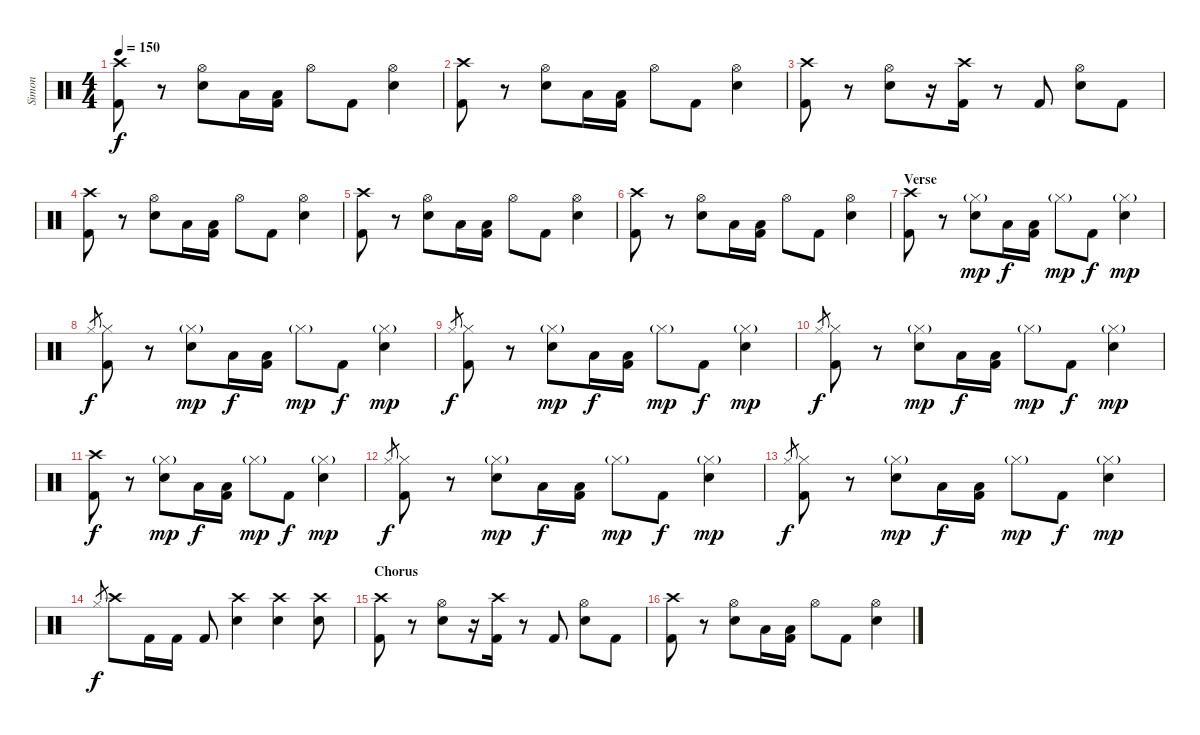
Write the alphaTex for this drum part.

\track ("Simon" "Simon") {instrument percussion}
\staff {score}
\articulation defaults
\ts (4 4)
\tempo 150
\clef neutral
\ks c
("Crash high (hit)" "Kick (hit) 2").8{dy f} r.8 ("Hi-Hat (open)" "Electric Snare (hit)").8 "Low Tom (hit)".16 ("Kick (hit) 2" "Low Tom (hit)").16 "Hi-Hat (open)".8 "Kick (hit) 2".8 ("Hi-Hat (open)" "Electric Snare (hit)").4 |
("Crash high (hit)" "Kick (hit) 2").8 r.8 ("Hi-Hat (open)" "Electric Snare (hit)").8 "Low Tom (hit)".16 ("Kick (hit) 2" "Low Tom (hit)").16 "Hi-Hat (open)".8 "Kick (hit) 2".8 ("Hi-Hat (open)" "Electric Snare (hit)").4 |
("Crash high (hit)" "Kick (hit) 2").8 r.8 ("Hi-Hat (open)" "Electric Snare (hit)").8 r.16 ("Crash high (hit)" "Kick (hit) 2").16 r.8 "Kick (hit) 2".8 ("Hi-Hat (open)" "Electric Snare (hit)").8 "Kick (hit) 2".8 |
("Crash high (hit)" "Kick (hit) 2").8 r.8 ("Hi-Hat (open)" "Electric Snare (hit)").8 "Low Tom (hit)".16 ("Kick (hit) 2" "Low Tom (hit)").16 "Hi-Hat (open)".8 "Kick (hit) 2".8 ("Hi-Hat (open)" "Electric Snare (hit)").4 |
("Crash high (hit)" "Kick (hit) 2").8 r.8 ("Hi-Hat (open)" "Electric Snare (hit)").8 "Low Tom (hit)".16 ("Kick (hit) 2" "Low Tom (hit)").16 "Hi-Hat (open)".8 "Kick (hit) 2".8 ("Hi-Hat (open)" "Electric Snare (hit)").4 |
("Crash high (hit)" "Kick (hit) 2").8 r.8 ("Hi-Hat (open)" "Electric Snare (hit)").8 "Low Tom (hit)".16 ("Kick (hit) 2" "Low Tom (hit)").16 "Hi-Hat (open)".8 "Kick (hit) 2".8 ("Hi-Hat (open)" "Electric Snare (hit)").4 |
\section ("" "Verse")
("Crash high (hit)" "Kick (hit) 2").8 r.8 ("Hi-Hat (closed)"{g} "Electric Snare (hit)").8{dy mp} "Low Tom (hit)".16{dy f} ("Kick (hit) 2" "Low Tom (hit)").16 "Hi-Hat (closed)"{g}.8{dy mp} "Kick (hit) 2".8{dy f} ("Hi-Hat (closed)"{g} "Electric Snare (hit)").4{dy mp} |
"Hi-Hat (closed)".8{gr dy f} ("Hi-Hat (closed)" "Kick (hit) 2").8 r.8 ("Hi-Hat (closed)"{g} "Electric Snare (hit)").8{dy mp} "Low Tom (hit)".16{dy f} ("Kick (hit) 2" "Low Tom (hit)").16 "Hi-Hat (closed)"{g}.8{dy mp} "Kick (hit) 2".8{dy f} ("Hi-Hat (closed)"{g} "Electric Snare (hit)").4{dy mp} |
"Hi-Hat (closed)".8{gr dy f} ("Hi-Hat (closed)" "Kick (hit) 2").8 r.8 ("Hi-Hat (closed)"{g} "Electric Snare (hit)").8{dy mp} "Low Tom (hit)".16{dy f} ("Kick (hit) 2" "Low Tom (hit)").16 "Hi-Hat (closed)"{g}.8{dy mp} "Kick (hit) 2".8{dy f} ("Hi-Hat (closed)"{g} "Electric Snare (hit)").4{dy mp} |
"Hi-Hat (closed)".8{gr dy f} ("Hi-Hat (closed)" "Kick (hit) 2").8 r.8 ("Hi-Hat (closed)"{g} "Electric Snare (hit)").8{dy mp} "Low Tom (hit)".16{dy f} ("Kick (hit) 2" "Low Tom (hit)").16 "Hi-Hat (closed)"{g}.8{dy mp} "Kick (hit) 2".8{dy f} ("Hi-Hat (closed)"{g} "Electric Snare (hit)").4{dy mp} |
("Crash high (hit)" "Kick (hit) 2").8{dy f} r.8 ("Hi-Hat (closed)"{g} "Electric Snare (hit)").8{dy mp} "Low Tom (hit)".16{dy f} ("Kick (hit) 2" "Low Tom (hit)").16 "Hi-Hat (closed)"{g}.8{dy mp} "Kick (hit) 2".8{dy f} ("Hi-Hat (closed)"{g} "Electric Snare (hit)").4{dy mp} |
"Hi-Hat (closed)".8{gr dy f} ("Hi-Hat (closed)" "Kick (hit) 2").8 r.8 ("Hi-Hat (closed)"{g} "Electric Snare (hit)").8{dy mp} "Low Tom (hit)".16{dy f} ("Kick (hit) 2" "Low Tom (hit)").16 "Hi-Hat (closed)"{g}.8{dy mp} "Kick (hit) 2".8{dy f} ("Hi-Hat (closed)"{g} "Electric Snare (hit)").4{dy mp} |
"Hi-Hat (closed)".8{gr dy f} ("Hi-Hat (closed)" "Kick (hit) 2").8 r.8 ("Hi-Hat (closed)"{g} "Electric Snare (hit)").8{dy mp} "Low Tom (hit)".16{dy f} ("Kick (hit) 2" "Low Tom (hit)").16 "Hi-Hat (closed)"{g}.8{dy mp} "Kick (hit) 2".8{dy f} ("Hi-Hat (closed)"{g} "Electric Snare (hit)").4{dy mp} |
"Hi-Hat (closed)".8{gr dy f} "Crash high (hit)".8 "Kick (hit) 2".16 "Kick (hit) 2".16 "Kick (hit) 2".8 ("Crash high (hit)" "Electric Snare (hit)").4 ("Crash high (hit)" "Electric Snare (hit)").4 ("Crash high (hit)" "Electric Snare (hit)").8 |
\section ("" "Chorus")
("Crash high (hit)" "Kick (hit) 2").8 r.8 ("Hi-Hat (open)" "Electric Snare (hit)").8 r.16 ("Crash high (hit)" "Kick (hit) 2").16 r.8 "Kick (hit) 2".8 ("Hi-Hat (open)" "Electric Snare (hit)").8 "Kick (hit) 2".8 |
("Crash high (hit)" "Kick (hit) 2").8 r.8 ("Hi-Hat (open)" "Electric Snare (hit)").8 "Low Tom (hit)".16 ("Kick (hit) 2" "Low Tom (hit)").16 "Hi-Hat (open)".8 "Kick (hit) 2".8 ("Hi-Hat (open)" "Electric Snare (hit)").4
